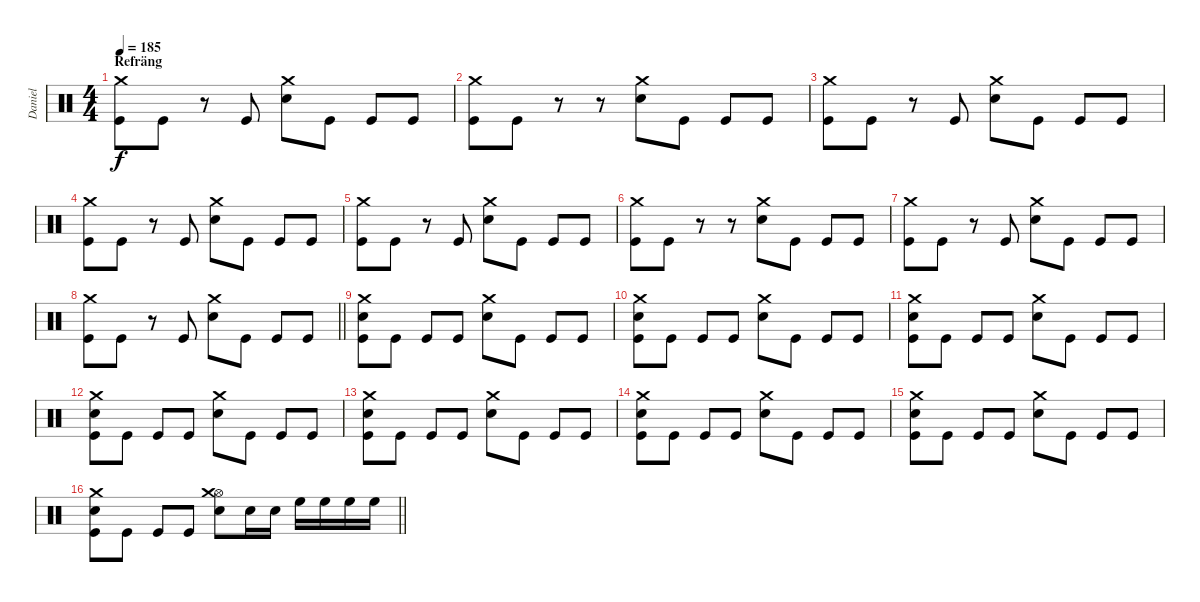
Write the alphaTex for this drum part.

\track ("Daniel" "Daniel") {instrument percussion}
\staff {score}
\articulation defaults
\ts (4 4)
\section ("" "Refräng")
\tempo 185
\clef neutral
\ks c
("Crash medium (hit)" "Kick (hit)").8{dy f} "Kick (hit)".8 r.8 "Kick (hit)".8 ("Crash medium (hit)" "Electric Snare (hit)").8 "Kick (hit)".8 "Kick (hit)".8 "Kick (hit)".8 |
("Crash medium (hit)" "Kick (hit)").8 "Kick (hit)".8 r.8 r.8 ("Crash medium (hit)" "Electric Snare (hit)").8 "Kick (hit)".8 "Kick (hit)".8 "Kick (hit)".8 |
("Crash medium (hit)" "Kick (hit)").8 "Kick (hit)".8 r.8 "Kick (hit)".8 ("Crash medium (hit)" "Electric Snare (hit)").8 "Kick (hit)".8 "Kick (hit)".8 "Kick (hit)".8 |
("Crash medium (hit)" "Kick (hit)").8 "Kick (hit)".8 r.8 "Kick (hit)".8 ("Crash medium (hit)" "Electric Snare (hit)").8 "Kick (hit)".8 "Kick (hit)".8 "Kick (hit)".8 |
("Crash medium (hit)" "Kick (hit)").8 "Kick (hit)".8 r.8 "Kick (hit)".8 ("Crash medium (hit)" "Electric Snare (hit)").8 "Kick (hit)".8 "Kick (hit)".8 "Kick (hit)".8 |
("Crash medium (hit)" "Kick (hit)").8 "Kick (hit)".8 r.8 r.8 ("Crash medium (hit)" "Electric Snare (hit)").8 "Kick (hit)".8 "Kick (hit)".8 "Kick (hit)".8 |
("Crash medium (hit)" "Kick (hit)").8 "Kick (hit)".8 r.8 "Kick (hit)".8 ("Crash medium (hit)" "Electric Snare (hit)").8 "Kick (hit)".8 "Kick (hit)".8 "Kick (hit)".8 |
\barLineRight lightlight
("Crash medium (hit)" "Kick (hit)").8 "Kick (hit)".8 r.8 "Kick (hit)".8 ("Crash medium (hit)" "Electric Snare (hit)").8 "Kick (hit)".8 "Kick (hit)".8 "Kick (hit)".8 |
("Crash medium (hit)" "Electric Snare (hit)" "Kick (hit)").8 "Kick (hit)".8 "Kick (hit)".8 "Kick (hit)".8 ("Crash medium (hit)" "Electric Snare (hit)").8 "Kick (hit)".8 "Kick (hit)".8 "Kick (hit)".8 |
("Crash medium (hit)" "Electric Snare (hit)" "Kick (hit)").8 "Kick (hit)".8 "Kick (hit)".8 "Kick (hit)".8 ("Crash medium (hit)" "Electric Snare (hit)").8 "Kick (hit)".8 "Kick (hit)".8 "Kick (hit)".8 |
("Crash medium (hit)" "Electric Snare (hit)" "Kick (hit)").8 "Kick (hit)".8 "Kick (hit)".8 "Kick (hit)".8 ("Crash medium (hit)" "Electric Snare (hit)").8 "Kick (hit)".8 "Kick (hit)".8 "Kick (hit)".8 |
("Crash medium (hit)" "Electric Snare (hit)" "Kick (hit)").8 "Kick (hit)".8 "Kick (hit)".8 "Kick (hit)".8 ("Crash medium (hit)" "Electric Snare (hit)").8 "Kick (hit)".8 "Kick (hit)".8 "Kick (hit)".8 |
("Crash medium (hit)" "Electric Snare (hit)" "Kick (hit)").8 "Kick (hit)".8 "Kick (hit)".8 "Kick (hit)".8 ("Crash medium (hit)" "Electric Snare (hit)").8 "Kick (hit)".8 "Kick (hit)".8 "Kick (hit)".8 |
("Crash medium (hit)" "Electric Snare (hit)" "Kick (hit)").8 "Kick (hit)".8 "Kick (hit)".8 "Kick (hit)".8 ("Crash medium (hit)" "Electric Snare (hit)").8 "Kick (hit)".8 "Kick (hit)".8 "Kick (hit)".8 |
("Crash medium (hit)" "Electric Snare (hit)" "Kick (hit)").8 "Kick (hit)".8 "Kick (hit)".8 "Kick (hit)".8 ("Crash medium (hit)" "Electric Snare (hit)").8 "Kick (hit)".8 "Kick (hit)".8 "Kick (hit)".8 |
\barLineRight lightlight
("Crash medium (hit)" "Electric Snare (hit)" "Kick (hit)").8 "Kick (hit)".8 "Kick (hit)".8 "Kick (hit)".8 ("Hi-Hat (open)" "Crash medium (hit)" "Electric Snare (hit)").8 "Electric Snare (hit)".16 "Electric Snare (hit)".16 "High Floor Tom (hit)".16 "High Floor Tom (hit)".16 "High Floor Tom (hit)".16 "High Floor Tom (hit)".16
